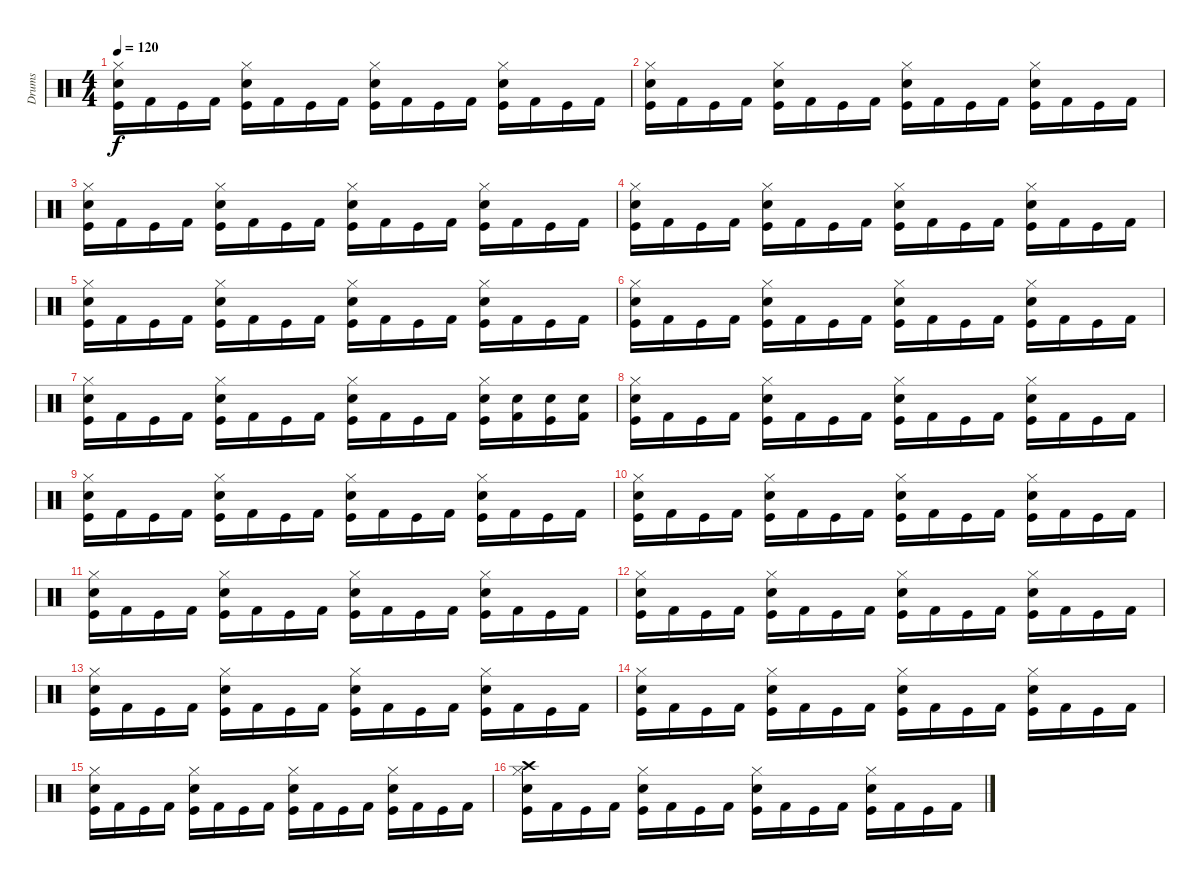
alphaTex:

\track ("Drums" "Drums") {instrument percussion}
\staff {score}
\articulation defaults
\ts (4 4)
\tempo 120
\clef neutral
\ks c
("Hi-Hat (closed)" "Snare (hit) 2" "Kick (hit)").16{dy f} "Kick (hit) 2".16 "Kick (hit)".16 "Kick (hit) 2".16 ("Hi-Hat (closed)" "Snare (hit) 2" "Kick (hit)").16 "Kick (hit) 2".16 "Kick (hit)".16 "Kick (hit) 2".16 ("Hi-Hat (closed)" "Snare (hit) 2" "Kick (hit)").16 "Kick (hit) 2".16 "Kick (hit)".16 "Kick (hit) 2".16 ("Hi-Hat (closed)" "Snare (hit) 2" "Kick (hit)").16 "Kick (hit) 2".16 "Kick (hit)".16 "Kick (hit) 2".16 |
("Hi-Hat (closed)" "Snare (hit) 2" "Kick (hit)").16 "Kick (hit) 2".16 "Kick (hit)".16 "Kick (hit) 2".16 ("Hi-Hat (closed)" "Snare (hit) 2" "Kick (hit)").16 "Kick (hit) 2".16 "Kick (hit)".16 "Kick (hit) 2".16 ("Hi-Hat (closed)" "Snare (hit) 2" "Kick (hit)").16 "Kick (hit) 2".16 "Kick (hit)".16 "Kick (hit) 2".16 ("Hi-Hat (closed)" "Snare (hit) 2" "Kick (hit)").16 "Kick (hit) 2".16 "Kick (hit)".16 "Kick (hit) 2".16 |
("Hi-Hat (closed)" "Snare (hit) 2" "Kick (hit)").16 "Kick (hit) 2".16 "Kick (hit)".16 "Kick (hit) 2".16 ("Hi-Hat (closed)" "Snare (hit) 2" "Kick (hit)").16 "Kick (hit) 2".16 "Kick (hit)".16 "Kick (hit) 2".16 ("Hi-Hat (closed)" "Snare (hit) 2" "Kick (hit)").16 "Kick (hit) 2".16 "Kick (hit)".16 "Kick (hit) 2".16 ("Hi-Hat (closed)" "Snare (hit) 2" "Kick (hit)").16 "Kick (hit) 2".16 "Kick (hit)".16 "Kick (hit) 2".16 |
("Hi-Hat (closed)" "Snare (hit) 2" "Kick (hit)").16 "Kick (hit) 2".16 "Kick (hit)".16 "Kick (hit) 2".16 ("Hi-Hat (closed)" "Snare (hit) 2" "Kick (hit)").16 "Kick (hit) 2".16 "Kick (hit)".16 "Kick (hit) 2".16 ("Hi-Hat (closed)" "Snare (hit) 2" "Kick (hit)").16 "Kick (hit) 2".16 "Kick (hit)".16 "Kick (hit) 2".16 ("Hi-Hat (closed)" "Snare (hit) 2" "Kick (hit)").16 "Kick (hit) 2".16 "Kick (hit)".16 "Kick (hit) 2".16 |
("Hi-Hat (closed)" "Snare (hit) 2" "Kick (hit)").16 "Kick (hit) 2".16 "Kick (hit)".16 "Kick (hit) 2".16 ("Hi-Hat (closed)" "Snare (hit) 2" "Kick (hit)").16 "Kick (hit) 2".16 "Kick (hit)".16 "Kick (hit) 2".16 ("Hi-Hat (closed)" "Snare (hit) 2" "Kick (hit)").16 "Kick (hit) 2".16 "Kick (hit)".16 "Kick (hit) 2".16 ("Hi-Hat (closed)" "Snare (hit) 2" "Kick (hit)").16 "Kick (hit) 2".16 "Kick (hit)".16 "Kick (hit) 2".16 |
("Hi-Hat (closed)" "Snare (hit) 2" "Kick (hit)").16 "Kick (hit) 2".16 "Kick (hit)".16 "Kick (hit) 2".16 ("Hi-Hat (closed)" "Snare (hit) 2" "Kick (hit)").16 "Kick (hit) 2".16 "Kick (hit)".16 "Kick (hit) 2".16 ("Hi-Hat (closed)" "Snare (hit) 2" "Kick (hit)").16 "Kick (hit) 2".16 "Kick (hit)".16 "Kick (hit) 2".16 ("Hi-Hat (closed)" "Snare (hit) 2" "Kick (hit)").16 "Kick (hit) 2".16 "Kick (hit)".16 "Kick (hit) 2".16 |
("Hi-Hat (closed)" "Snare (hit) 2" "Kick (hit)").16 "Kick (hit) 2".16 "Kick (hit)".16 "Kick (hit) 2".16 ("Hi-Hat (closed)" "Snare (hit) 2" "Kick (hit)").16 "Kick (hit) 2".16 "Kick (hit)".16 "Kick (hit) 2".16 ("Hi-Hat (closed)" "Snare (hit) 2" "Kick (hit)").16 "Kick (hit) 2".16 "Kick (hit)".16 "Kick (hit) 2".16 ("Hi-Hat (closed)" "Snare (hit) 2" "Kick (hit)").16 ("Snare (hit) 2" "Kick (hit) 2").16 ("Snare (hit) 2" "Kick (hit)").16 ("Snare (hit) 2" "Kick (hit) 2").16 |
("Hi-Hat (closed)" "Snare (hit) 2" "Kick (hit)").16 "Kick (hit) 2".16 "Kick (hit)".16 "Kick (hit) 2".16 ("Hi-Hat (closed)" "Snare (hit) 2" "Kick (hit)").16 "Kick (hit) 2".16 "Kick (hit)".16 "Kick (hit) 2".16 ("Hi-Hat (closed)" "Snare (hit) 2" "Kick (hit)").16 "Kick (hit) 2".16 "Kick (hit)".16 "Kick (hit) 2".16 ("Hi-Hat (closed)" "Snare (hit) 2" "Kick (hit)").16 "Kick (hit) 2".16 "Kick (hit)".16 "Kick (hit) 2".16 |
("Hi-Hat (closed)" "Snare (hit) 2" "Kick (hit)").16 "Kick (hit) 2".16 "Kick (hit)".16 "Kick (hit) 2".16 ("Hi-Hat (closed)" "Snare (hit) 2" "Kick (hit)").16 "Kick (hit) 2".16 "Kick (hit)".16 "Kick (hit) 2".16 ("Hi-Hat (closed)" "Snare (hit) 2" "Kick (hit)").16 "Kick (hit) 2".16 "Kick (hit)".16 "Kick (hit) 2".16 ("Hi-Hat (closed)" "Snare (hit) 2" "Kick (hit)").16 "Kick (hit) 2".16 "Kick (hit)".16 "Kick (hit) 2".16 |
("Hi-Hat (closed)" "Snare (hit) 2" "Kick (hit)").16 "Kick (hit) 2".16 "Kick (hit)".16 "Kick (hit) 2".16 ("Hi-Hat (closed)" "Snare (hit) 2" "Kick (hit)").16 "Kick (hit) 2".16 "Kick (hit)".16 "Kick (hit) 2".16 ("Hi-Hat (closed)" "Snare (hit) 2" "Kick (hit)").16 "Kick (hit) 2".16 "Kick (hit)".16 "Kick (hit) 2".16 ("Hi-Hat (closed)" "Snare (hit) 2" "Kick (hit)").16 "Kick (hit) 2".16 "Kick (hit)".16 "Kick (hit) 2".16 |
("Hi-Hat (closed)" "Snare (hit) 2" "Kick (hit)").16 "Kick (hit) 2".16 "Kick (hit)".16 "Kick (hit) 2".16 ("Hi-Hat (closed)" "Snare (hit) 2" "Kick (hit)").16 "Kick (hit) 2".16 "Kick (hit)".16 "Kick (hit) 2".16 ("Hi-Hat (closed)" "Snare (hit) 2" "Kick (hit)").16 "Kick (hit) 2".16 "Kick (hit)".16 "Kick (hit) 2".16 ("Hi-Hat (closed)" "Snare (hit) 2" "Kick (hit)").16 "Kick (hit) 2".16 "Kick (hit)".16 "Kick (hit) 2".16 |
("Hi-Hat (closed)" "Snare (hit) 2" "Kick (hit)").16 "Kick (hit) 2".16 "Kick (hit)".16 "Kick (hit) 2".16 ("Hi-Hat (closed)" "Snare (hit) 2" "Kick (hit)").16 "Kick (hit) 2".16 "Kick (hit)".16 "Kick (hit) 2".16 ("Hi-Hat (closed)" "Snare (hit) 2" "Kick (hit)").16 "Kick (hit) 2".16 "Kick (hit)".16 "Kick (hit) 2".16 ("Hi-Hat (closed)" "Snare (hit) 2" "Kick (hit)").16 "Kick (hit) 2".16 "Kick (hit)".16 "Kick (hit) 2".16 |
("Hi-Hat (closed)" "Snare (hit) 2" "Kick (hit)").16 "Kick (hit) 2".16 "Kick (hit)".16 "Kick (hit) 2".16 ("Hi-Hat (closed)" "Snare (hit) 2" "Kick (hit)").16 "Kick (hit) 2".16 "Kick (hit)".16 "Kick (hit) 2".16 ("Hi-Hat (closed)" "Snare (hit) 2" "Kick (hit)").16 "Kick (hit) 2".16 "Kick (hit)".16 "Kick (hit) 2".16 ("Hi-Hat (closed)" "Snare (hit) 2" "Kick (hit)").16 "Kick (hit) 2".16 "Kick (hit)".16 "Kick (hit) 2".16 |
("Hi-Hat (closed)" "Snare (hit) 2" "Kick (hit)").16 "Kick (hit) 2".16 "Kick (hit)".16 "Kick (hit) 2".16 ("Hi-Hat (closed)" "Snare (hit) 2" "Kick (hit)").16 "Kick (hit) 2".16 "Kick (hit)".16 "Kick (hit) 2".16 ("Hi-Hat (closed)" "Snare (hit) 2" "Kick (hit)").16 "Kick (hit) 2".16 "Kick (hit)".16 "Kick (hit) 2".16 ("Hi-Hat (closed)" "Snare (hit) 2" "Kick (hit)").16 "Kick (hit) 2".16 "Kick (hit)".16 "Kick (hit) 2".16 |
("Hi-Hat (closed)" "Snare (hit) 2" "Kick (hit)").16 "Kick (hit) 2".16 "Kick (hit)".16 "Kick (hit) 2".16 ("Hi-Hat (closed)" "Snare (hit) 2" "Kick (hit)").16 "Kick (hit) 2".16 "Kick (hit)".16 "Kick (hit) 2".16 ("Hi-Hat (closed)" "Snare (hit) 2" "Kick (hit)").16 "Kick (hit) 2".16 "Kick (hit)".16 "Kick (hit) 2".16 ("Hi-Hat (closed)" "Snare (hit) 2" "Kick (hit)").16 "Kick (hit) 2".16 "Kick (hit)".16 "Kick (hit) 2".16 |
("Hi-Hat (closed)" "Crash high (hit)" "Snare (hit) 2" "Kick (hit)").16 "Kick (hit) 2".16 "Kick (hit)".16 "Kick (hit) 2".16 ("Hi-Hat (closed)" "Snare (hit) 2" "Kick (hit)").16 "Kick (hit) 2".16 "Kick (hit)".16 "Kick (hit) 2".16 ("Hi-Hat (closed)" "Snare (hit) 2" "Kick (hit)").16 "Kick (hit) 2".16 "Kick (hit)".16 "Kick (hit) 2".16 ("Hi-Hat (closed)" "Snare (hit) 2" "Kick (hit)").16 "Kick (hit) 2".16 "Kick (hit)".16 "Kick (hit) 2".16
